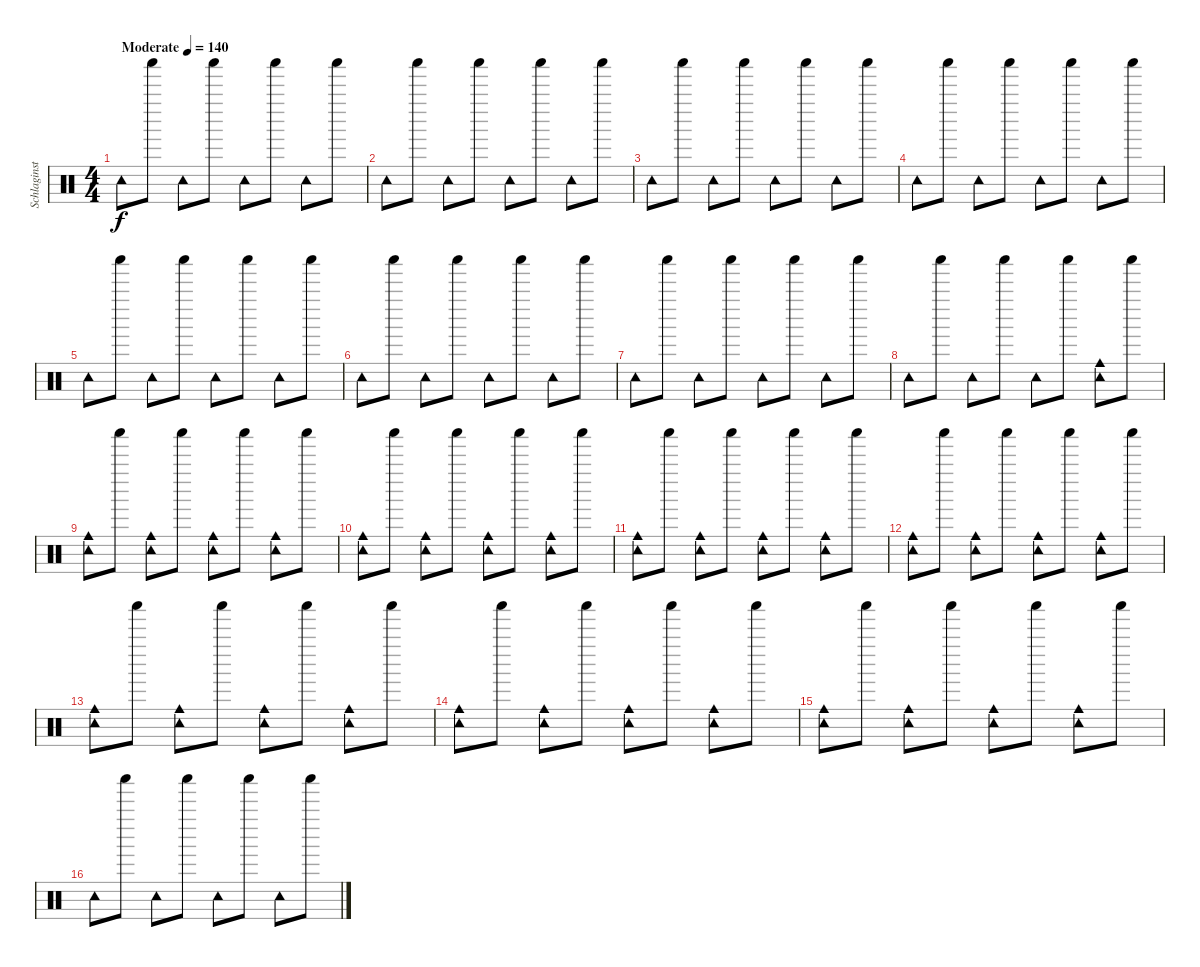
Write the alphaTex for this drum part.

\track ("Schlaginstrumente - Auswahl" "Schlaginst") {instrument percussion}
\staff {score}
\articulation defaults
\ts (4 4)
\tempo (140 "Moderate")
\clef neutral
\ks c "Tambourine (hit)".8{dy f} "Shaker (hit)".8 "Tambourine (hit)".8 "Shaker (hit)".8 "Tambourine (hit)".8 "Shaker (hit)".8 "Tambourine (hit)".8 "Shaker (hit)".8
|
"Tambourine (hit)".8 "Shaker (hit)".8 "Tambourine (hit)".8 "Shaker (hit)".8 "Tambourine (hit)".8 "Shaker (hit)".8 "Tambourine (hit)".8 "Shaker (hit)".8 |
"Tambourine (hit)".8 "Shaker (hit)".8 "Tambourine (hit)".8 "Shaker (hit)".8 "Tambourine (hit)".8 "Shaker (hit)".8 "Tambourine (hit)".8 "Shaker (hit)".8 |
"Tambourine (hit)".8 "Shaker (hit)".8 "Tambourine (hit)".8 "Shaker (hit)".8 "Tambourine (hit)".8 "Shaker (hit)".8 "Tambourine (hit)".8 "Shaker (hit)".8 |
"Tambourine (hit)".8 "Shaker (hit)".8 "Tambourine (hit)".8 "Shaker (hit)".8 "Tambourine (hit)".8 "Shaker (hit)".8 "Tambourine (hit)".8 "Shaker (hit)".8 |
"Tambourine (hit)".8 "Shaker (hit)".8 "Tambourine (hit)".8 "Shaker (hit)".8 "Tambourine (hit)".8 "Shaker (hit)".8 "Tambourine (hit)".8 "Shaker (hit)".8 |
"Tambourine (hit)".8 "Shaker (hit)".8 "Tambourine (hit)".8 "Shaker (hit)".8 "Tambourine (hit)".8 "Shaker (hit)".8 "Tambourine (hit)".8 "Shaker (hit)".8 |
"Tambourine (hit)".8 "Shaker (hit)".8 "Tambourine (hit)".8 "Shaker (hit)".8 "Tambourine (hit)".8 "Shaker (hit)".8 ("Tambourine (hit)" "Cowbell medium (hit)").8 "Shaker (hit)".8 |
("Tambourine (hit)" "Cowbell medium (hit)").8 "Shaker (hit)".8 ("Tambourine (hit)" "Cowbell medium (hit)").8 "Shaker (hit)".8 ("Tambourine (hit)" "Cowbell medium (hit)").8 "Shaker (hit)".8 ("Tambourine (hit)" "Cowbell medium (hit)").8 "Shaker (hit)".8 |
("Tambourine (hit)" "Cowbell medium (hit)").8 "Shaker (hit)".8 ("Tambourine (hit)" "Cowbell medium (hit)").8 "Shaker (hit)".8 ("Tambourine (hit)" "Cowbell medium (hit)").8 "Shaker (hit)".8 ("Tambourine (hit)" "Cowbell medium (hit)").8 "Shaker (hit)".8 |
("Tambourine (hit)" "Cowbell medium (hit)").8 "Shaker (hit)".8 ("Tambourine (hit)" "Cowbell medium (hit)").8 "Shaker (hit)".8 ("Tambourine (hit)" "Cowbell medium (hit)").8 "Shaker (hit)".8 ("Tambourine (hit)" "Cowbell medium (hit)").8 "Shaker (hit)".8 |
("Tambourine (hit)" "Cowbell medium (hit)").8 "Shaker (hit)".8 ("Tambourine (hit)" "Cowbell medium (hit)").8 "Shaker (hit)".8 ("Tambourine (hit)" "Cowbell medium (hit)").8 "Shaker (hit)".8 ("Tambourine (hit)" "Cowbell medium (hit)").8 "Shaker (hit)".8 |
("Tambourine (hit)" "Cowbell medium (hit)").8 "Shaker (hit)".8 ("Tambourine (hit)" "Cowbell medium (hit)").8 "Shaker (hit)".8 ("Tambourine (hit)" "Cowbell medium (hit)").8 "Shaker (hit)".8 ("Tambourine (hit)" "Cowbell medium (hit)").8 "Shaker (hit)".8 |
("Tambourine (hit)" "Cowbell medium (hit)").8 "Shaker (hit)".8 ("Tambourine (hit)" "Cowbell medium (hit)").8 "Shaker (hit)".8 ("Tambourine (hit)" "Cowbell medium (hit)").8 "Shaker (hit)".8 ("Tambourine (hit)" "Cowbell medium (hit)").8 "Shaker (hit)".8 |
("Tambourine (hit)" "Cowbell medium (hit)").8 "Shaker (hit)".8 ("Tambourine (hit)" "Cowbell medium (hit)").8 "Shaker (hit)".8 ("Tambourine (hit)" "Cowbell medium (hit)").8 "Shaker (hit)".8 ("Tambourine (hit)" "Cowbell medium (hit)").8 "Shaker (hit)".8 |
"Tambourine (hit)".8 "Shaker (hit)".8 "Tambourine (hit)".8 "Shaker (hit)".8 "Tambourine (hit)".8 "Shaker (hit)".8 "Tambourine (hit)".8 "Shaker (hit)".8
